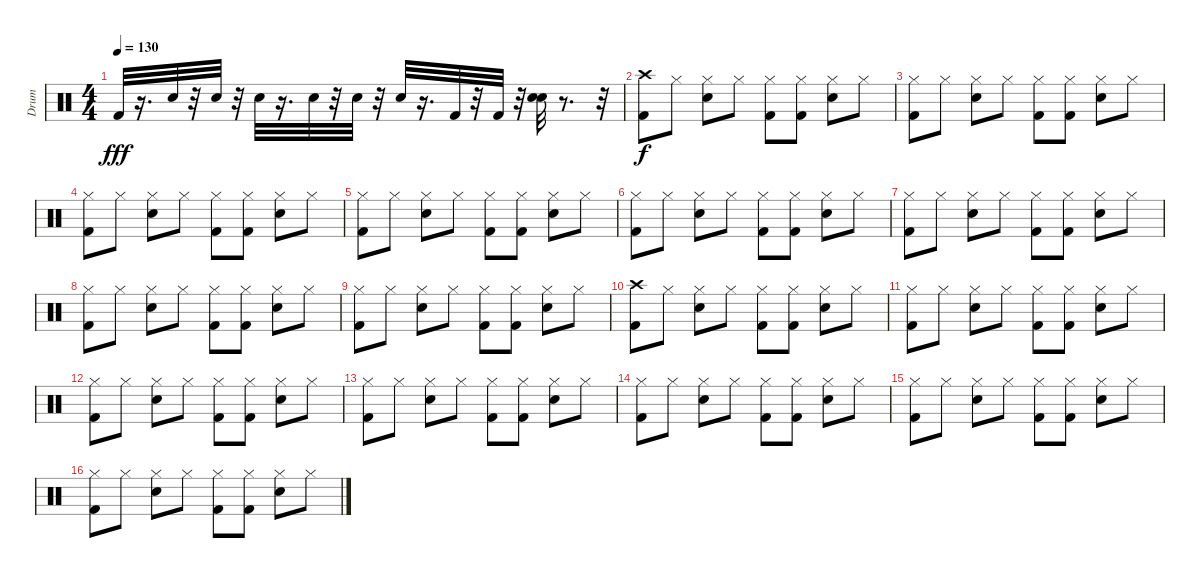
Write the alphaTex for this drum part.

\track ("Drum" "Drum") {instrument percussion}
\staff {score}
\articulation defaults
\ts (4 4)
\tempo 130
\clef neutral
\ks c "Kick (hit) 2".32{dy fff}
r.16{d} "Snare (hit) 2".32 r.32 "Electric Snare (hit)".32 r.32 "Snare (hit) 2".32 r.16{d} "Snare (hit) 2".32 r.32 "Electric Snare (hit)".32 r.32 "Snare (hit) 2".32 r.16{d} "Kick (hit) 2".32 r.32 "Kick (hit) 2".32 r.32 ("Snare (hit) 2" "Snare (hit) 2").32 r.8{d} r.32 |
("Crash high (hit)" "Kick (hit) 2").8{dy f} "Hi-Hat (closed)".8 ("Hi-Hat (closed)" "Snare (hit) 2").8 "Hi-Hat (closed)".8 ("Hi-Hat (closed)" "Kick (hit) 2").8 ("Hi-Hat (closed)" "Kick (hit) 2").8 ("Hi-Hat (closed)" "Snare (hit) 2").8 "Hi-Hat (closed)".8 |
("Hi-Hat (closed)" "Kick (hit) 2").8 "Hi-Hat (closed)".8 ("Hi-Hat (closed)" "Snare (hit) 2").8 "Hi-Hat (closed)".8 ("Hi-Hat (closed)" "Kick (hit) 2").8 ("Hi-Hat (closed)" "Kick (hit) 2").8 ("Hi-Hat (closed)" "Snare (hit) 2").8 "Hi-Hat (closed)".8 |
("Hi-Hat (closed)" "Kick (hit) 2").8 "Hi-Hat (closed)".8 ("Hi-Hat (closed)" "Snare (hit) 2").8 "Hi-Hat (closed)".8 ("Hi-Hat (closed)" "Kick (hit) 2").8 ("Hi-Hat (closed)" "Kick (hit) 2").8 ("Hi-Hat (closed)" "Snare (hit) 2").8 "Hi-Hat (closed)".8 |
("Hi-Hat (closed)" "Kick (hit) 2").8 "Hi-Hat (closed)".8 ("Hi-Hat (closed)" "Snare (hit) 2").8 "Hi-Hat (closed)".8 ("Hi-Hat (closed)" "Kick (hit) 2").8 ("Hi-Hat (closed)" "Kick (hit) 2").8 ("Hi-Hat (closed)" "Snare (hit) 2").8 "Hi-Hat (closed)".8 |
("Hi-Hat (closed)" "Kick (hit) 2").8 "Hi-Hat (closed)".8 ("Hi-Hat (closed)" "Snare (hit) 2").8 "Hi-Hat (closed)".8 ("Hi-Hat (closed)" "Kick (hit) 2").8 ("Hi-Hat (closed)" "Kick (hit) 2").8 ("Hi-Hat (closed)" "Snare (hit) 2").8 "Hi-Hat (closed)".8 |
("Hi-Hat (closed)" "Kick (hit) 2").8 "Hi-Hat (closed)".8 ("Hi-Hat (closed)" "Snare (hit) 2").8 "Hi-Hat (closed)".8 ("Hi-Hat (closed)" "Kick (hit) 2").8 ("Hi-Hat (closed)" "Kick (hit) 2").8 ("Hi-Hat (closed)" "Snare (hit) 2").8 "Hi-Hat (closed)".8 |
("Hi-Hat (closed)" "Kick (hit) 2").8 "Hi-Hat (closed)".8 ("Hi-Hat (closed)" "Snare (hit) 2").8 "Hi-Hat (closed)".8 ("Hi-Hat (closed)" "Kick (hit) 2").8 ("Hi-Hat (closed)" "Kick (hit) 2").8 ("Hi-Hat (closed)" "Snare (hit) 2").8 "Hi-Hat (closed)".8 |
("Hi-Hat (closed)" "Kick (hit) 2").8 "Hi-Hat (closed)".8 ("Hi-Hat (closed)" "Snare (hit) 2").8 "Hi-Hat (closed)".8 ("Hi-Hat (closed)" "Kick (hit) 2").8 ("Hi-Hat (closed)" "Kick (hit) 2").8 ("Hi-Hat (closed)" "Snare (hit) 2").8 "Hi-Hat (closed)".8 |
("Crash high (hit)" "Kick (hit) 2").8 "Hi-Hat (closed)".8 ("Hi-Hat (closed)" "Snare (hit) 2").8 "Hi-Hat (closed)".8 ("Hi-Hat (closed)" "Kick (hit) 2").8 ("Hi-Hat (closed)" "Kick (hit) 2").8 ("Hi-Hat (closed)" "Snare (hit) 2").8 "Hi-Hat (closed)".8 |
("Hi-Hat (closed)" "Kick (hit) 2").8 "Hi-Hat (closed)".8 ("Hi-Hat (closed)" "Snare (hit) 2").8 "Hi-Hat (closed)".8 ("Hi-Hat (closed)" "Kick (hit) 2").8 ("Hi-Hat (closed)" "Kick (hit) 2").8 ("Hi-Hat (closed)" "Snare (hit) 2").8 "Hi-Hat (closed)".8 |
("Hi-Hat (closed)" "Kick (hit) 2").8 "Hi-Hat (closed)".8 ("Hi-Hat (closed)" "Snare (hit) 2").8 "Hi-Hat (closed)".8 ("Hi-Hat (closed)" "Kick (hit) 2").8 ("Hi-Hat (closed)" "Kick (hit) 2").8 ("Hi-Hat (closed)" "Snare (hit) 2").8 "Hi-Hat (closed)".8 |
("Hi-Hat (closed)" "Kick (hit) 2").8 "Hi-Hat (closed)".8 ("Hi-Hat (closed)" "Snare (hit) 2").8 "Hi-Hat (closed)".8 ("Hi-Hat (closed)" "Kick (hit) 2").8 ("Hi-Hat (closed)" "Kick (hit) 2").8 ("Hi-Hat (closed)" "Snare (hit) 2").8 "Hi-Hat (closed)".8 |
("Hi-Hat (closed)" "Kick (hit) 2").8 "Hi-Hat (closed)".8 ("Hi-Hat (closed)" "Snare (hit) 2").8 "Hi-Hat (closed)".8 ("Hi-Hat (closed)" "Kick (hit) 2").8 ("Hi-Hat (closed)" "Kick (hit) 2").8 ("Hi-Hat (closed)" "Snare (hit) 2").8 "Hi-Hat (closed)".8 |
("Hi-Hat (closed)" "Kick (hit) 2").8 "Hi-Hat (closed)".8 ("Hi-Hat (closed)" "Snare (hit) 2").8 "Hi-Hat (closed)".8 ("Hi-Hat (closed)" "Kick (hit) 2").8 ("Hi-Hat (closed)" "Kick (hit) 2").8 ("Hi-Hat (closed)" "Snare (hit) 2").8 "Hi-Hat (closed)".8 |
("Hi-Hat (closed)" "Kick (hit) 2").8 "Hi-Hat (closed)".8 ("Hi-Hat (closed)" "Snare (hit) 2").8 "Hi-Hat (closed)".8 ("Hi-Hat (closed)" "Kick (hit) 2").8 ("Hi-Hat (closed)" "Kick (hit) 2").8 ("Hi-Hat (closed)" "Snare (hit) 2").8 "Hi-Hat (closed)".8
